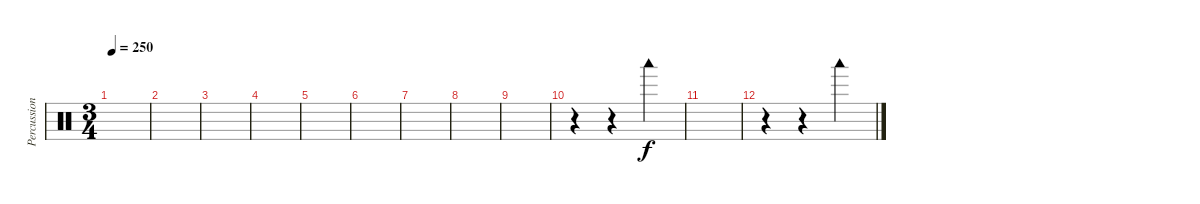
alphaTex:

\track ("Percussion" "Percussion") {instrument percussion}
\staff {score}
\articulation defaults
\ts (3 4)
\tempo 250
\clef neutral
\ks c
|
|
|
|
|
|
|
|
|
r.4 r.4 "Woodblock low (hit)".4 |
|
r.4 r.4 "Woodblock low (hit)".4
